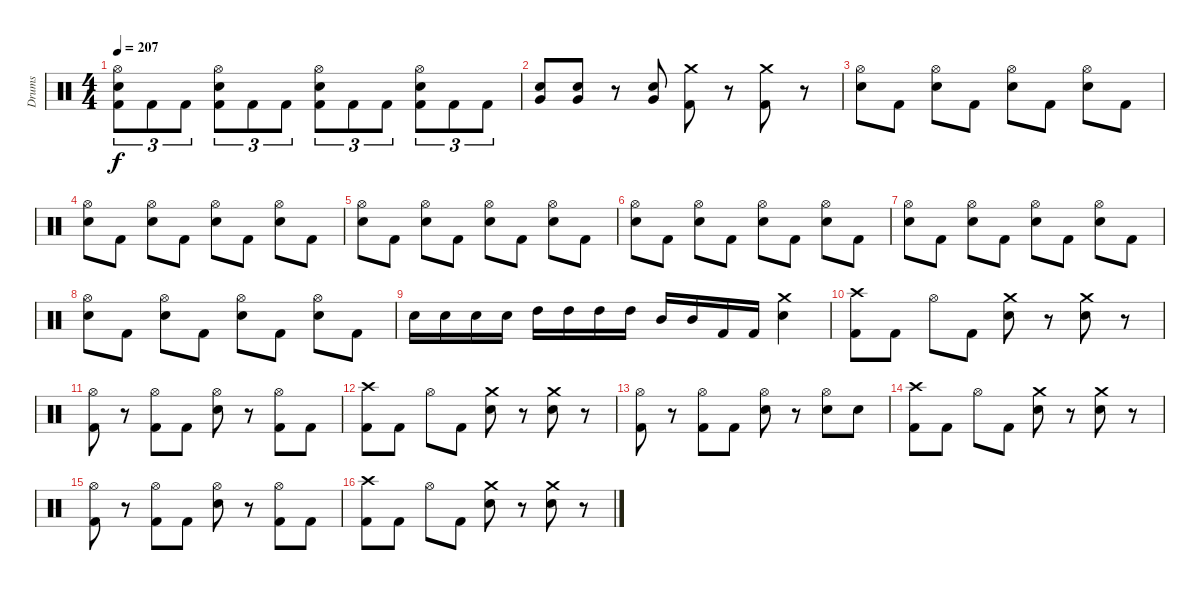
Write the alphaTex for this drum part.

\track ("Drums" "Drums") {instrument percussion}
\staff {score}
\articulation defaults
\ts (4 4)
\tempo 207
\clef neutral
\ks c
("Hi-Hat (open)" "Electric Snare (hit)" "Kick (hit) 2").8{tu (3 2) dy f} "Kick (hit) 2".8{tu (3 2)} "Kick (hit) 2".8{tu (3 2)} ("Hi-Hat (open)" "Electric Snare (hit)" "Kick (hit) 2").8{tu (3 2)} "Kick (hit) 2".8{tu (3 2)} "Kick (hit) 2".8{tu (3 2)} ("Hi-Hat (open)" "Electric Snare (hit)" "Kick (hit) 2").8{tu (3 2)} "Kick (hit) 2".8{tu (3 2)} "Kick (hit) 2".8{tu (3 2)} ("Hi-Hat (open)" "Electric Snare (hit)" "Kick (hit) 2").8{tu (3 2)} "Kick (hit) 2".8{tu (3 2)} "Kick (hit) 2".8{tu (3 2)} |
("Very Low Tom (hit)" "Electric Snare (hit)").8 ("Very Low Tom (hit)" "Electric Snare (hit)").8 r.8 ("Very Low Tom (hit)" "Electric Snare (hit)").8 ("Crash medium (hit)" "Kick (hit) 2").8 r.8 ("Crash medium (hit)" "Kick (hit) 2").8 r.8 |
("Hi-Hat (open)" "Electric Snare (hit)").8 "Kick (hit) 2".8 ("Hi-Hat (open)" "Electric Snare (hit)").8 "Kick (hit) 2".8 ("Hi-Hat (open)" "Electric Snare (hit)").8 "Kick (hit) 2".8 ("Hi-Hat (open)" "Electric Snare (hit)").8 "Kick (hit) 2".8 |
("Hi-Hat (open)" "Electric Snare (hit)").8 "Kick (hit) 2".8 ("Hi-Hat (open)" "Electric Snare (hit)").8 "Kick (hit) 2".8 ("Hi-Hat (open)" "Electric Snare (hit)").8 "Kick (hit) 2".8 ("Hi-Hat (open)" "Electric Snare (hit)").8 "Kick (hit) 2".8 |
("Hi-Hat (open)" "Electric Snare (hit)").8 "Kick (hit) 2".8 ("Hi-Hat (open)" "Electric Snare (hit)").8 "Kick (hit) 2".8 ("Hi-Hat (open)" "Electric Snare (hit)").8 "Kick (hit) 2".8 ("Hi-Hat (open)" "Electric Snare (hit)").8 "Kick (hit) 2".8 |
("Hi-Hat (open)" "Electric Snare (hit)").8 "Kick (hit) 2".8 ("Hi-Hat (open)" "Electric Snare (hit)").8 "Kick (hit) 2".8 ("Hi-Hat (open)" "Electric Snare (hit)").8 "Kick (hit) 2".8 ("Hi-Hat (open)" "Electric Snare (hit)").8 "Kick (hit) 2".8 |
("Hi-Hat (open)" "Electric Snare (hit)").8 "Kick (hit) 2".8 ("Hi-Hat (open)" "Electric Snare (hit)").8 "Kick (hit) 2".8 ("Hi-Hat (open)" "Electric Snare (hit)").8 "Kick (hit) 2".8 ("Hi-Hat (open)" "Electric Snare (hit)").8 "Kick (hit) 2".8 |
("Hi-Hat (open)" "Electric Snare (hit)").8 "Kick (hit) 2".8 ("Hi-Hat (open)" "Electric Snare (hit)").8 "Kick (hit) 2".8 ("Hi-Hat (open)" "Electric Snare (hit)").8 "Kick (hit) 2".8 ("Hi-Hat (open)" "Electric Snare (hit)").8 "Kick (hit) 2".8 |
"Electric Snare (hit)".16 "Electric Snare (hit)".16 "Electric Snare (hit)".16 "Electric Snare (hit)".16 "High Tom (hit)".16 "High Tom (hit)".16 "High Tom (hit)".16 "High Tom (hit)".16 "Mid Tom (hit)".16 "Mid Tom (hit)".16 "Kick (hit) 2".16 "Kick (hit) 2".16 ("Crash medium (hit)" "Electric Snare (hit)").4 |
("Crash high (hit)" "Kick (hit) 2").8 "Kick (hit) 2".8 "Hi-Hat (open)".8 "Kick (hit) 2".8 ("Crash medium (hit)" "Electric Snare (hit)").8 r.8 ("Crash medium (hit)" "Electric Snare (hit)").8 r.8 |
("Hi-Hat (open)" "Kick (hit) 2").8 r.8 ("Hi-Hat (open)" "Kick (hit) 2").8 "Kick (hit) 2".8 ("Hi-Hat (open)" "Electric Snare (hit)").8 r.8 ("Hi-Hat (open)" "Kick (hit) 2").8 "Kick (hit) 2".8 |
("Crash high (hit)" "Kick (hit) 2").8 "Kick (hit) 2".8 "Hi-Hat (open)".8 "Kick (hit) 2".8 ("Crash medium (hit)" "Electric Snare (hit)").8 r.8 ("Crash medium (hit)" "Electric Snare (hit)").8 r.8 |
("Hi-Hat (open)" "Kick (hit) 2").8 r.8 ("Hi-Hat (open)" "Kick (hit) 2").8 "Kick (hit) 2".8 ("Hi-Hat (open)" "Electric Snare (hit)").8 r.8 ("Hi-Hat (open)" "Electric Snare (hit)").8 "Electric Snare (hit)".8 |
("Crash high (hit)" "Kick (hit) 2").8 "Kick (hit) 2".8 "Hi-Hat (open)".8 "Kick (hit) 2".8 ("Crash medium (hit)" "Electric Snare (hit)").8 r.8 ("Crash medium (hit)" "Electric Snare (hit)").8 r.8 |
("Hi-Hat (open)" "Kick (hit) 2").8 r.8 ("Hi-Hat (open)" "Kick (hit) 2").8 "Kick (hit) 2".8 ("Hi-Hat (open)" "Electric Snare (hit)").8 r.8 ("Hi-Hat (open)" "Kick (hit) 2").8 "Kick (hit) 2".8 |
("Crash high (hit)" "Kick (hit) 2").8 "Kick (hit) 2".8 "Hi-Hat (open)".8 "Kick (hit) 2".8 ("Crash medium (hit)" "Electric Snare (hit)").8 r.8 ("Crash medium (hit)" "Electric Snare (hit)").8 r.8
